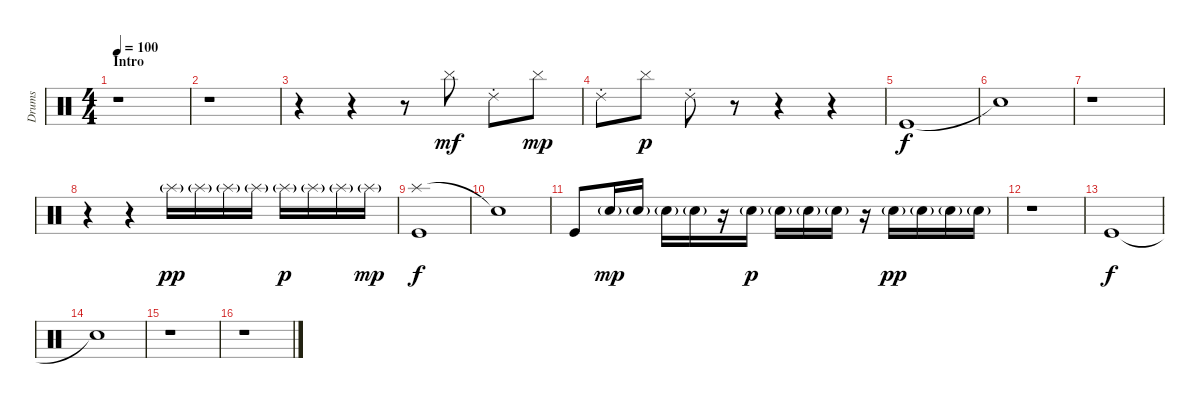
\track ("Drums" "Drums") {instrument percussion}
\staff {score}
\articulation defaults
\ts (4 4)
\section ("" "Intro")
\tempo 100
\clef neutral
\ks c
r.1{dy mf} |
r.1 |
r.4 r.4 r.8 "Cymbal (hit)".8 "Ride (choke) 2".8 "Cymbal (hit)".8{dy mp} |
"Ride (choke) 2".8 "Cymbal (hit)".8{dy p} "Ride (choke) 2".8 r.8 r.4 r.4 |
"Kick (hit)".1{dy f} |
"Snare (hit)"{t}.1 |
r.1 |
r.4 r.4 "Splash (hit)"{g}.16{dy pp} "Splash (hit)"{g}.16 "Splash (hit)"{g}.16 "Splash (hit)"{g}.16 "Splash (hit)"{g}.16{dy p} "Splash (hit)"{g}.16 "Splash (hit)"{g}.16 "Splash (hit)"{g}.16{dy mp} |
("Splash (hit)" "Kick (hit)").1{dy f} |
"Snare (hit)"{t}.1 |
"Kick (hit)".8 "Snare (hit) 2"{g}.16{dy mp} "Snare (hit) 2"{g}.16 "Snare (hit) 2"{g}.16 "Snare (hit) 2"{g}.16 r.16 "Snare (hit) 2"{g}.16{dy p} "Snare (hit) 2"{g}.16 "Snare (hit) 2"{g}.16 "Snare (hit) 2"{g}.16 r.16 "Snare (hit) 2"{g}.16{dy pp} "Snare (hit) 2"{g}.16 "Snare (hit) 2"{g}.16 "Snare (hit) 2"{g}.16 |
r.1 |
"Kick (hit)".1{dy f} |
"Snare (hit)"{t}.1 |
r.1 |
r.1
